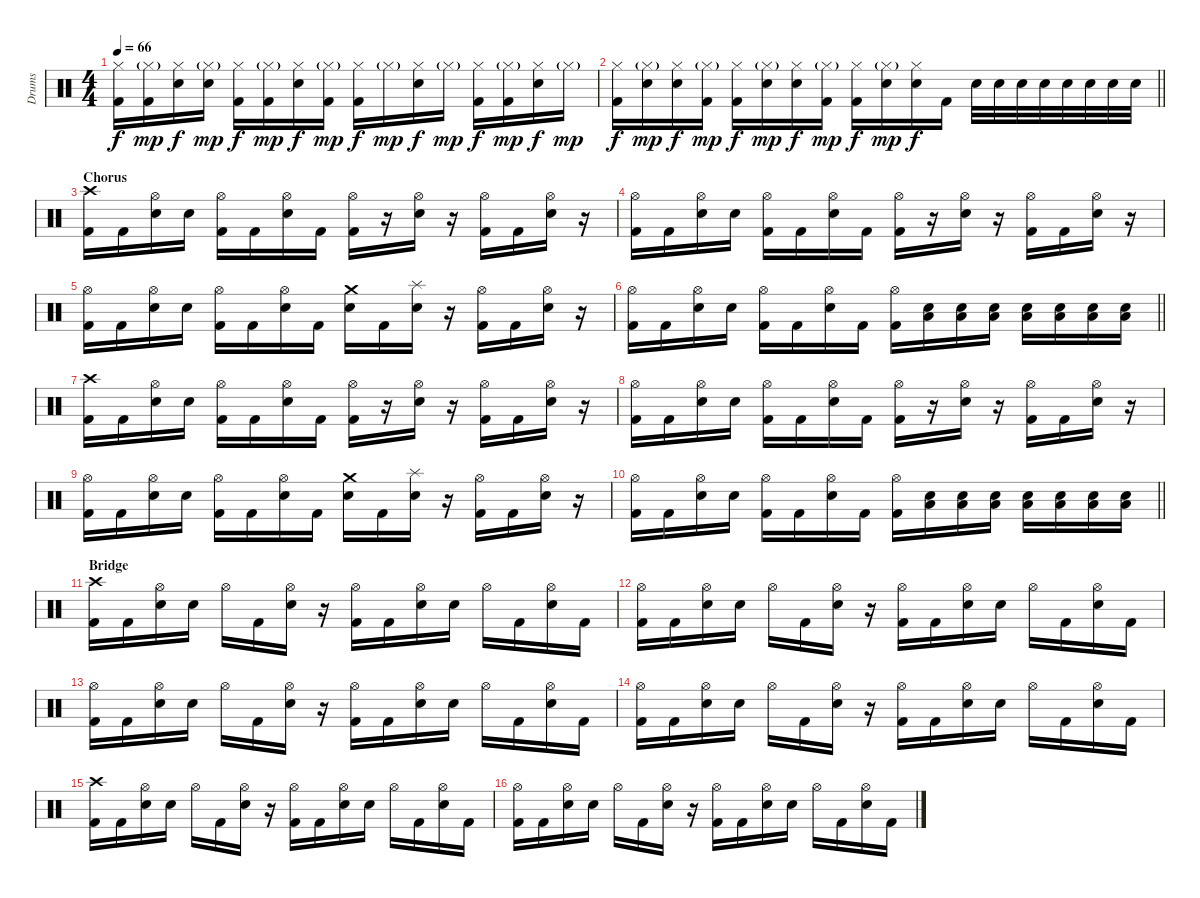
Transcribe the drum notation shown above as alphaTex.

\track ("Drums" "Drums") {instrument percussion}
\staff {score}
\articulation defaults
\ts (4 4)
\tempo 66
\clef neutral
\ks c
("Hi-Hat (closed)" "Kick (hit) 2").16{dy f} ("Hi-Hat (closed)"{g} "Kick (hit) 2").16{dy mp} ("Hi-Hat (closed)" "Snare (hit) 2").16{dy f} ("Hi-Hat (closed)"{g} "Snare (hit) 2").16{dy mp} ("Hi-Hat (closed)" "Kick (hit) 2").16{dy f} ("Hi-Hat (closed)"{g} "Kick (hit) 2").16{dy mp} ("Hi-Hat (closed)" "Snare (hit) 2").16{dy f} ("Hi-Hat (closed)"{g} "Kick (hit) 2").16{dy mp} ("Hi-Hat (closed)" "Kick (hit) 2").16{dy f} "Hi-Hat (closed)"{g}.16{dy mp} ("Hi-Hat (closed)" "Snare (hit) 2").16{dy f} "Hi-Hat (closed)"{g}.16{dy mp} ("Hi-Hat (closed)" "Kick (hit) 2").16{dy f} ("Hi-Hat (closed)"{g} "Kick (hit) 2").16{dy mp} ("Hi-Hat (closed)" "Snare (hit) 2").16{dy f} "Hi-Hat (closed)"{g}.16{dy mp} |
\barLineRight lightlight
("Hi-Hat (closed)" "Kick (hit) 2").16{dy f} ("Hi-Hat (closed)"{g} "Snare (hit) 2").16{dy mp} ("Hi-Hat (closed)" "Snare (hit) 2").16{dy f} ("Hi-Hat (closed)"{g} "Kick (hit) 2").16{dy mp} ("Hi-Hat (closed)" "Kick (hit) 2").16{dy f} ("Hi-Hat (closed)"{g} "Snare (hit) 2").16{dy mp} ("Hi-Hat (closed)" "Snare (hit) 2").16{dy f} ("Hi-Hat (closed)"{g} "Kick (hit) 2").16{dy mp} ("Hi-Hat (closed)" "Kick (hit) 2").16{dy f} ("Hi-Hat (closed)"{g} "Snare (hit) 2").16{dy mp} ("Hi-Hat (closed)" "Snare (hit) 2").16{dy f} "Kick (hit) 2".16 "Snare (hit) 2".32 "Snare (hit) 2".32 "Snare (hit) 2".32 "Snare (hit) 2".32 "Snare (hit) 2".32 "Snare (hit) 2".32 "Snare (hit) 2".32 "Snare (hit) 2".32 |
\section ("" "Chorus")
("Crash high (hit)" "Kick (hit) 2").16 "Kick (hit) 2".16 ("Hi-Hat (open)" "Snare (hit) 2").16 "Snare (hit) 2".16 ("Hi-Hat (open)" "Kick (hit) 2").16 "Kick (hit) 2".16 ("Hi-Hat (open)" "Snare (hit) 2").16 "Kick (hit) 2".16 ("Hi-Hat (open)" "Kick (hit) 2").16 r.16 ("Hi-Hat (open)" "Snare (hit) 2").16 r.16 ("Hi-Hat (open)" "Kick (hit) 2").16 "Kick (hit) 2".16 ("Hi-Hat (open)" "Snare (hit) 2").16 r.16 |
("Hi-Hat (open)" "Kick (hit) 2").16 "Kick (hit) 2".16 ("Hi-Hat (open)" "Snare (hit) 2").16 "Snare (hit) 2".16 ("Hi-Hat (open)" "Kick (hit) 2").16 "Kick (hit) 2".16 ("Hi-Hat (open)" "Snare (hit) 2").16 "Kick (hit) 2".16 ("Hi-Hat (open)" "Kick (hit) 2").16 r.16 ("Hi-Hat (open)" "Snare (hit) 2").16 r.16 ("Hi-Hat (open)" "Kick (hit) 2").16 "Kick (hit) 2".16 ("Hi-Hat (open)" "Snare (hit) 2").16 r.16 |
("Hi-Hat (open)" "Kick (hit) 2").16 "Kick (hit) 2".16 ("Hi-Hat (open)" "Snare (hit) 2").16 "Snare (hit) 2".16 ("Hi-Hat (open)" "Kick (hit) 2").16 "Kick (hit) 2".16 ("Hi-Hat (open)" "Snare (hit) 2").16 "Kick (hit) 2".16 ("Crash medium (hit)" "Snare (hit) 2").16 "Kick (hit) 2".16 ("Splash (hit)" "Snare (hit) 2").16 r.16 ("Hi-Hat (open)" "Kick (hit) 2").16 "Kick (hit) 2".16 ("Hi-Hat (open)" "Snare (hit) 2").16 r.16 |
\barLineRight lightlight
("Hi-Hat (open)" "Kick (hit) 2").16 "Kick (hit) 2".16 ("Hi-Hat (open)" "Snare (hit) 2").16 "Snare (hit) 2".16 ("Hi-Hat (open)" "Kick (hit) 2").16 "Kick (hit) 2".16 ("Hi-Hat (open)" "Snare (hit) 2").16 "Kick (hit) 2".16 ("Hi-Hat (open)" "Kick (hit) 2").16 ("Low Tom (hit)" "Snare (hit) 2").16 ("Low Tom (hit)" "Snare (hit) 2").16 ("Low Tom (hit)" "Snare (hit) 2").16 ("Low Tom (hit)" "Snare (hit) 2").16 ("Low Tom (hit)" "Snare (hit) 2").16 ("Low Tom (hit)" "Snare (hit) 2").16 ("Low Tom (hit)" "Snare (hit) 2").16 |
("Crash high (hit)" "Kick (hit) 2").16 "Kick (hit) 2".16 ("Hi-Hat (open)" "Snare (hit) 2").16 "Snare (hit) 2".16 ("Hi-Hat (open)" "Kick (hit) 2").16 "Kick (hit) 2".16 ("Hi-Hat (open)" "Snare (hit) 2").16 "Kick (hit) 2".16 ("Hi-Hat (open)" "Kick (hit) 2").16 r.16 ("Hi-Hat (open)" "Snare (hit) 2").16 r.16 ("Hi-Hat (open)" "Kick (hit) 2").16 "Kick (hit) 2".16 ("Hi-Hat (open)" "Snare (hit) 2").16 r.16 |
("Hi-Hat (open)" "Kick (hit) 2").16 "Kick (hit) 2".16 ("Hi-Hat (open)" "Snare (hit) 2").16 "Snare (hit) 2".16 ("Hi-Hat (open)" "Kick (hit) 2").16 "Kick (hit) 2".16 ("Hi-Hat (open)" "Snare (hit) 2").16 "Kick (hit) 2".16 ("Hi-Hat (open)" "Kick (hit) 2").16 r.16 ("Hi-Hat (open)" "Snare (hit) 2").16 r.16 ("Hi-Hat (open)" "Kick (hit) 2").16 "Kick (hit) 2".16 ("Hi-Hat (open)" "Snare (hit) 2").16 r.16 |
("Hi-Hat (open)" "Kick (hit) 2").16 "Kick (hit) 2".16 ("Hi-Hat (open)" "Snare (hit) 2").16 "Snare (hit) 2".16 ("Hi-Hat (open)" "Kick (hit) 2").16 "Kick (hit) 2".16 ("Hi-Hat (open)" "Snare (hit) 2").16 "Kick (hit) 2".16 ("Crash medium (hit)" "Snare (hit) 2").16 "Kick (hit) 2".16 ("Splash (hit)" "Snare (hit) 2").16 r.16 ("Hi-Hat (open)" "Kick (hit) 2").16 "Kick (hit) 2".16 ("Hi-Hat (open)" "Snare (hit) 2").16 r.16 |
\barLineRight lightlight
("Hi-Hat (open)" "Kick (hit) 2").16 "Kick (hit) 2".16 ("Hi-Hat (open)" "Snare (hit) 2").16 "Snare (hit) 2".16 ("Hi-Hat (open)" "Kick (hit) 2").16 "Kick (hit) 2".16 ("Hi-Hat (open)" "Snare (hit) 2").16 "Kick (hit) 2".16 ("Hi-Hat (open)" "Kick (hit) 2").16 ("Low Tom (hit)" "Snare (hit) 2").16 ("Low Tom (hit)" "Snare (hit) 2").16 ("Low Tom (hit)" "Snare (hit) 2").16 ("Low Tom (hit)" "Snare (hit) 2").16 ("Low Tom (hit)" "Snare (hit) 2").16 ("Low Tom (hit)" "Snare (hit) 2").16 ("Low Tom (hit)" "Snare (hit) 2").16 |
\section ("" "Bridge")
("Crash high (hit)" "Kick (hit) 2").16 "Kick (hit) 2".16 ("Hi-Hat (open)" "Snare (hit) 2").16 "Snare (hit) 2".16 "Hi-Hat (open)".16 "Kick (hit) 2".16 ("Hi-Hat (open)" "Snare (hit) 2").16 r.16 ("Hi-Hat (open)" "Kick (hit) 2").16 "Kick (hit) 2".16 ("Hi-Hat (open)" "Snare (hit) 2").16 "Snare (hit) 2".16 "Hi-Hat (open)".16 "Kick (hit) 2".16 ("Hi-Hat (open)" "Snare (hit) 2").16 "Kick (hit) 2".16 |
("Hi-Hat (open)" "Kick (hit) 2").16 "Kick (hit) 2".16 ("Hi-Hat (open)" "Snare (hit) 2").16 "Snare (hit) 2".16 "Hi-Hat (open)".16 "Kick (hit) 2".16 ("Hi-Hat (open)" "Snare (hit) 2").16 r.16 ("Hi-Hat (open)" "Kick (hit) 2").16 "Kick (hit) 2".16 ("Hi-Hat (open)" "Snare (hit) 2").16 "Snare (hit) 2".16 "Hi-Hat (open)".16 "Kick (hit) 2".16 ("Hi-Hat (open)" "Snare (hit) 2").16 "Kick (hit) 2".16 |
("Hi-Hat (open)" "Kick (hit) 2").16 "Kick (hit) 2".16 ("Hi-Hat (open)" "Snare (hit) 2").16 "Snare (hit) 2".16 "Hi-Hat (open)".16 "Kick (hit) 2".16 ("Hi-Hat (open)" "Snare (hit) 2").16 r.16 ("Hi-Hat (open)" "Kick (hit) 2").16 "Kick (hit) 2".16 ("Hi-Hat (open)" "Snare (hit) 2").16 "Snare (hit) 2".16 "Hi-Hat (open)".16 "Kick (hit) 2".16 ("Hi-Hat (open)" "Snare (hit) 2").16 "Kick (hit) 2".16 |
("Hi-Hat (open)" "Kick (hit) 2").16 "Kick (hit) 2".16 ("Hi-Hat (open)" "Snare (hit) 2").16 "Snare (hit) 2".16 "Hi-Hat (open)".16 "Kick (hit) 2".16 ("Hi-Hat (open)" "Snare (hit) 2").16 r.16 ("Hi-Hat (open)" "Kick (hit) 2").16 "Kick (hit) 2".16 ("Hi-Hat (open)" "Snare (hit) 2").16 "Snare (hit) 2".16 "Hi-Hat (open)".16 "Kick (hit) 2".16 ("Hi-Hat (open)" "Snare (hit) 2").16 "Kick (hit) 2".16 |
("Crash high (hit)" "Kick (hit) 2").16 "Kick (hit) 2".16 ("Hi-Hat (open)" "Snare (hit) 2").16 "Snare (hit) 2".16 "Hi-Hat (open)".16 "Kick (hit) 2".16 ("Hi-Hat (open)" "Snare (hit) 2").16 r.16 ("Hi-Hat (open)" "Kick (hit) 2").16 "Kick (hit) 2".16 ("Hi-Hat (open)" "Snare (hit) 2").16 "Snare (hit) 2".16 "Hi-Hat (open)".16 "Kick (hit) 2".16 ("Hi-Hat (open)" "Snare (hit) 2").16 "Kick (hit) 2".16 |
("Hi-Hat (open)" "Kick (hit) 2").16 "Kick (hit) 2".16 ("Hi-Hat (open)" "Snare (hit) 2").16 "Snare (hit) 2".16 "Hi-Hat (open)".16 "Kick (hit) 2".16 ("Hi-Hat (open)" "Snare (hit) 2").16 r.16 ("Hi-Hat (open)" "Kick (hit) 2").16 "Kick (hit) 2".16 ("Hi-Hat (open)" "Snare (hit) 2").16 "Snare (hit) 2".16 "Hi-Hat (open)".16 "Kick (hit) 2".16 ("Hi-Hat (open)" "Snare (hit) 2").16 "Kick (hit) 2".16
